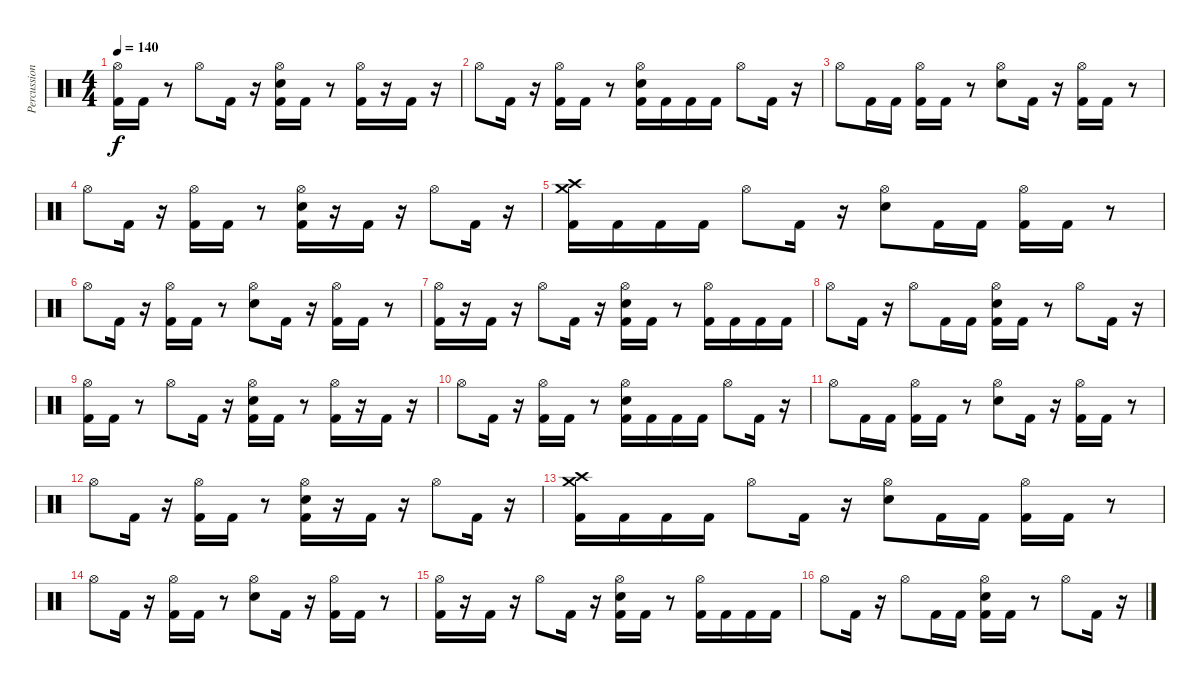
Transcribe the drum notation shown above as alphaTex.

\track ("Percussion" "Percussion") {instrument percussion}
\staff {score}
\articulation defaults
\ts (4 4)
\tempo 140
\clef neutral
\ks c
("Hi-Hat (open)" "Kick (hit) 2").16{dy f} "Kick (hit) 2".16 r.8 "Hi-Hat (open)".8 "Kick (hit) 2".16 r.16 ("Hi-Hat (open)" "Snare (hit) 2" "Kick (hit) 2").16 "Kick (hit) 2".16 r.8 ("Hi-Hat (open)" "Kick (hit) 2").16 r.16 "Kick (hit) 2".16 r.16 |
"Hi-Hat (open)".8 "Kick (hit) 2".16 r.16 ("Hi-Hat (open)" "Kick (hit) 2").16 "Kick (hit) 2".16 r.8 ("Hi-Hat (open)" "Snare (hit) 2" "Kick (hit) 2").16 "Kick (hit) 2".16 "Kick (hit) 2".16 "Kick (hit) 2".16 "Hi-Hat (open)".8 "Kick (hit) 2".16 r.16 |
"Hi-Hat (open)".8 "Kick (hit) 2".16 "Kick (hit) 2".16 ("Hi-Hat (open)" "Kick (hit) 2").16 "Kick (hit) 2".16 r.8 ("Hi-Hat (open)" "Snare (hit) 2").8 "Kick (hit) 2".16 r.16 ("Hi-Hat (open)" "Kick (hit) 2").16 "Kick (hit) 2".16 r.8 |
"Hi-Hat (open)".8 "Kick (hit) 2".16 r.16 ("Hi-Hat (open)" "Kick (hit) 2").16 "Kick (hit) 2".16 r.8 ("Hi-Hat (open)" "Snare (hit) 2" "Kick (hit) 2").16 r.16 "Kick (hit) 2".16 r.16 "Hi-Hat (open)".8 "Kick (hit) 2".16 r.16 |
("Crash medium (hit)" "Crash high (hit)" "Kick (hit) 2").16 "Kick (hit) 2".16 "Kick (hit) 2".16 "Kick (hit) 2".16 "Hi-Hat (open)".8 "Kick (hit) 2".16 r.16 ("Hi-Hat (open)" "Snare (hit) 2").8 "Kick (hit) 2".16 "Kick (hit) 2".16 ("Hi-Hat (open)" "Kick (hit) 2").16 "Kick (hit) 2".16 r.8 |
"Hi-Hat (open)".8 "Kick (hit) 2".16 r.16 ("Hi-Hat (open)" "Kick (hit) 2").16 "Kick (hit) 2".16 r.8 ("Hi-Hat (open)" "Snare (hit) 2").8 "Kick (hit) 2".16 r.16 ("Hi-Hat (open)" "Kick (hit) 2").16 "Kick (hit) 2".16 r.8 |
("Hi-Hat (open)" "Kick (hit) 2").16 r.16 "Kick (hit) 2".16 r.16 "Hi-Hat (open)".8 "Kick (hit) 2".16 r.16 ("Hi-Hat (open)" "Snare (hit) 2" "Kick (hit) 2").16 "Kick (hit) 2".16 r.8 ("Hi-Hat (open)" "Kick (hit) 2").16 "Kick (hit) 2".16 "Kick (hit) 2".16 "Kick (hit) 2".16 |
"Hi-Hat (open)".8 "Kick (hit) 2".16 r.16 "Hi-Hat (open)".8 "Kick (hit) 2".16 "Kick (hit) 2".16 ("Hi-Hat (open)" "Snare (hit) 2" "Kick (hit) 2").16 "Kick (hit) 2".16 r.8 "Hi-Hat (open)".8 "Kick (hit) 2".16 r.16 |
("Hi-Hat (open)" "Kick (hit) 2").16 "Kick (hit) 2".16 r.8 "Hi-Hat (open)".8 "Kick (hit) 2".16 r.16 ("Hi-Hat (open)" "Snare (hit) 2" "Kick (hit) 2").16 "Kick (hit) 2".16 r.8 ("Hi-Hat (open)" "Kick (hit) 2").16 r.16 "Kick (hit) 2".16 r.16 |
"Hi-Hat (open)".8 "Kick (hit) 2".16 r.16 ("Hi-Hat (open)" "Kick (hit) 2").16 "Kick (hit) 2".16 r.8 ("Hi-Hat (open)" "Snare (hit) 2" "Kick (hit) 2").16 "Kick (hit) 2".16 "Kick (hit) 2".16 "Kick (hit) 2".16 "Hi-Hat (open)".8 "Kick (hit) 2".16 r.16 |
"Hi-Hat (open)".8 "Kick (hit) 2".16 "Kick (hit) 2".16 ("Hi-Hat (open)" "Kick (hit) 2").16 "Kick (hit) 2".16 r.8 ("Hi-Hat (open)" "Snare (hit) 2").8 "Kick (hit) 2".16 r.16 ("Hi-Hat (open)" "Kick (hit) 2").16 "Kick (hit) 2".16 r.8 |
"Hi-Hat (open)".8 "Kick (hit) 2".16 r.16 ("Hi-Hat (open)" "Kick (hit) 2").16 "Kick (hit) 2".16 r.8 ("Hi-Hat (open)" "Snare (hit) 2" "Kick (hit) 2").16 r.16 "Kick (hit) 2".16 r.16 "Hi-Hat (open)".8 "Kick (hit) 2".16 r.16 |
("Crash medium (hit)" "Crash high (hit)" "Kick (hit) 2").16 "Kick (hit) 2".16 "Kick (hit) 2".16 "Kick (hit) 2".16 "Hi-Hat (open)".8 "Kick (hit) 2".16 r.16 ("Hi-Hat (open)" "Snare (hit) 2").8 "Kick (hit) 2".16 "Kick (hit) 2".16 ("Hi-Hat (open)" "Kick (hit) 2").16 "Kick (hit) 2".16 r.8 |
"Hi-Hat (open)".8 "Kick (hit) 2".16 r.16 ("Hi-Hat (open)" "Kick (hit) 2").16 "Kick (hit) 2".16 r.8 ("Hi-Hat (open)" "Snare (hit) 2").8 "Kick (hit) 2".16 r.16 ("Hi-Hat (open)" "Kick (hit) 2").16 "Kick (hit) 2".16 r.8 |
("Hi-Hat (open)" "Kick (hit) 2").16 r.16 "Kick (hit) 2".16 r.16 "Hi-Hat (open)".8 "Kick (hit) 2".16 r.16 ("Hi-Hat (open)" "Snare (hit) 2" "Kick (hit) 2").16 "Kick (hit) 2".16 r.8 ("Hi-Hat (open)" "Kick (hit) 2").16 "Kick (hit) 2".16 "Kick (hit) 2".16 "Kick (hit) 2".16 |
"Hi-Hat (open)".8 "Kick (hit) 2".16 r.16 "Hi-Hat (open)".8 "Kick (hit) 2".16 "Kick (hit) 2".16 ("Hi-Hat (open)" "Snare (hit) 2" "Kick (hit) 2").16 "Kick (hit) 2".16 r.8 "Hi-Hat (open)".8 "Kick (hit) 2".16 r.16
